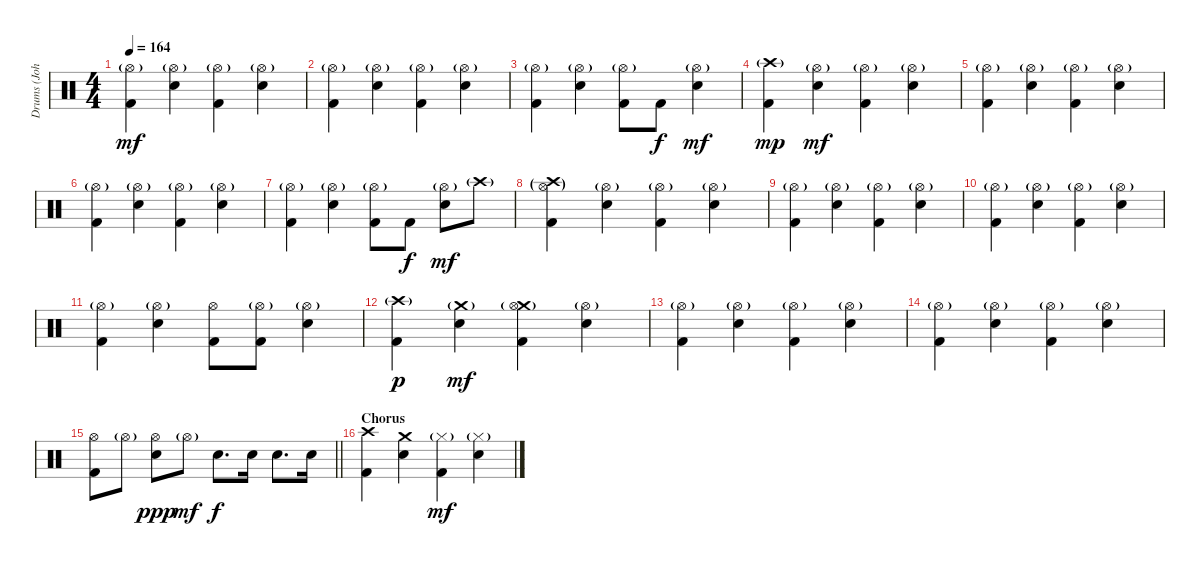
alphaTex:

\track ("Drums (John O'Reilly)" "Drums (Joh") {instrument percussion}
\staff {score}
\articulation defaults
\ts (4 4)
\tempo 164
\clef neutral
\ks c
("Hi-Hat (open)"{g} "Kick (hit) 2").4{dy mf} ("Hi-Hat (open)"{g} "Electric Snare (hit)").4 ("Hi-Hat (open)"{g} "Kick (hit) 2").4 ("Hi-Hat (open)"{g} "Electric Snare (hit)").4 |
("Hi-Hat (open)"{g} "Kick (hit) 2").4 ("Hi-Hat (open)"{g} "Electric Snare (hit)").4 ("Hi-Hat (open)"{g} "Kick (hit) 2").4 ("Hi-Hat (open)"{g} "Electric Snare (hit)").4 |
("Hi-Hat (open)"{g} "Kick (hit) 2").4 ("Hi-Hat (open)"{g} "Electric Snare (hit)").4 ("Hi-Hat (open)"{g} "Kick (hit) 2").8 "Kick (hit) 2".8{dy f} ("Hi-Hat (open)"{g} "Electric Snare (hit)").4{dy mf} |
("Crash high (hit)"{g} "Kick (hit) 2").4{dy mp} ("Hi-Hat (open)"{g} "Electric Snare (hit)").4{dy mf} ("Hi-Hat (open)"{g} "Kick (hit) 2").4 ("Hi-Hat (open)"{g} "Electric Snare (hit)").4 |
("Hi-Hat (open)"{g} "Kick (hit) 2").4 ("Hi-Hat (open)"{g} "Electric Snare (hit)").4 ("Hi-Hat (open)"{g} "Kick (hit) 2").4 ("Hi-Hat (open)"{g} "Electric Snare (hit)").4 |
("Hi-Hat (open)"{g} "Kick (hit) 2").4 ("Hi-Hat (open)"{g} "Electric Snare (hit)").4 ("Hi-Hat (open)"{g} "Kick (hit) 2").4 ("Hi-Hat (open)"{g} "Electric Snare (hit)").4 |
("Hi-Hat (open)"{g} "Kick (hit) 2").4 ("Hi-Hat (open)"{g} "Electric Snare (hit)").4 ("Hi-Hat (open)"{g} "Kick (hit) 2").8 "Kick (hit) 2".8{dy f} ("Hi-Hat (open)"{g} "Electric Snare (hit)").8{dy mf} "Crash high (hit)"{g}.8 |
("Crash high (hit)"{g} "Hi-Hat (open)"{g} "Kick (hit) 2").4 ("Hi-Hat (open)"{g} "Electric Snare (hit)").4 ("Hi-Hat (open)"{g} "Kick (hit) 2").4 ("Hi-Hat (open)"{g} "Electric Snare (hit)").4 |
("Hi-Hat (open)"{g} "Kick (hit) 2").4 ("Hi-Hat (open)"{g} "Electric Snare (hit)").4 ("Hi-Hat (open)"{g} "Kick (hit) 2").4 ("Hi-Hat (open)"{g} "Electric Snare (hit)").4 |
("Hi-Hat (open)"{g} "Kick (hit) 2").4 ("Hi-Hat (open)"{g} "Electric Snare (hit)").4 ("Hi-Hat (open)"{g} "Kick (hit) 2").4 ("Hi-Hat (open)"{g} "Electric Snare (hit)").4 |
("Hi-Hat (open)"{g} "Kick (hit) 2").4 ("Hi-Hat (open)"{g} "Electric Snare (hit)").4 ("Hi-Hat (open)" "Kick (hit) 2").8 ("Hi-Hat (open)"{g} "Kick (hit) 2").8 ("Hi-Hat (open)"{g} "Electric Snare (hit)").4 |
("Crash high (hit)"{g} "Kick (hit) 2").4{dy p} ("Crash medium (hit)"{g} "Electric Snare (hit)").4{dy mf} ("Crash medium (hit)"{g} "Hi-Hat (open)"{g} "Kick (hit) 2").4 ("Hi-Hat (open)"{g} "Electric Snare (hit)").4 |
("Hi-Hat (open)"{g} "Kick (hit) 2").4 ("Hi-Hat (open)"{g} "Electric Snare (hit)").4 ("Hi-Hat (open)"{g} "Kick (hit) 2").4 ("Hi-Hat (open)"{g} "Electric Snare (hit)").4 |
("Hi-Hat (open)"{g} "Kick (hit) 2").4 ("Hi-Hat (open)"{g} "Electric Snare (hit)").4 ("Hi-Hat (open)"{g} "Kick (hit) 2").4 ("Hi-Hat (open)"{g} "Electric Snare (hit)").4 |
\barLineRight lightlight
("Hi-Hat (open)" "Kick (hit) 2").8 "Hi-Hat (open)"{g}.8 ("Hi-Hat (open)" "Electric Snare (hit)").8{dy ppp} "Hi-Hat (open)"{g}.8{dy mf} "Electric Snare (hit)".8{d dy f} "Electric Snare (hit)".16 "Electric Snare (hit)".8{d} "Electric Snare (hit)".16 |
\section ("" "Chorus")
("Crash high (hit)" "Kick (hit) 2").4 ("Crash medium (hit)" "Electric Snare (hit)").4 ("Hi-Hat (closed)"{g} "Kick (hit) 2").4{dy mf} ("Hi-Hat (closed)"{g} "Electric Snare (hit)").4
